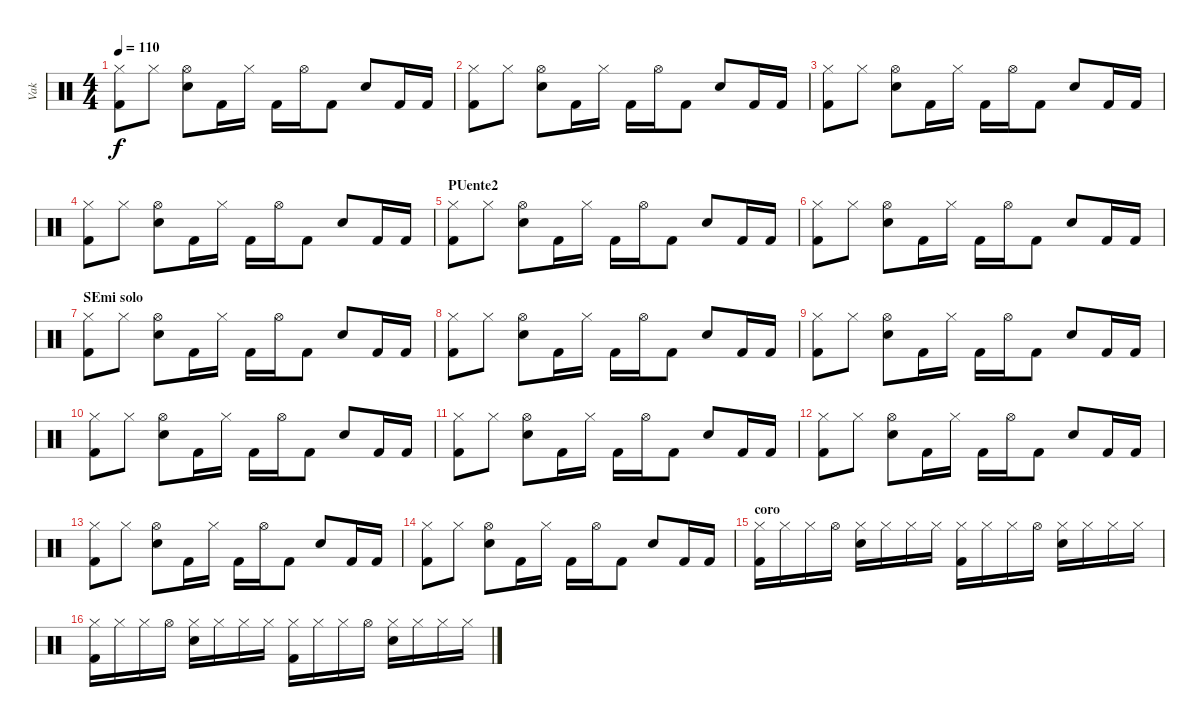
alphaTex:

\track ("Vak" "Vak") {instrument percussion}
\staff {score}
\articulation defaults
\ts (4 4)
\tempo 110
\clef neutral
\ks c
("Kick (hit) 2" "Hi-Hat (closed)").8{dy f} "Hi-Hat (closed)".8 ("Snare (hit) 2" "Hi-Hat (open)").8 "Kick (hit) 2".16 "Hi-Hat (closed)".16 "Kick (hit) 2".16 "Hi-Hat (open)".16 "Kick (hit) 2".8 "Snare (hit) 2".8 "Kick (hit) 2".16 "Kick (hit) 2".16 |
("Kick (hit) 2" "Hi-Hat (closed)").8 "Hi-Hat (closed)".8 ("Snare (hit) 2" "Hi-Hat (open)").8 "Kick (hit) 2".16 "Hi-Hat (closed)".16 "Kick (hit) 2".16 "Hi-Hat (open)".16 "Kick (hit) 2".8 "Snare (hit) 2".8 "Kick (hit) 2".16 "Kick (hit) 2".16 |
("Kick (hit) 2" "Hi-Hat (closed)").8 "Hi-Hat (closed)".8 ("Snare (hit) 2" "Hi-Hat (open)").8 "Kick (hit) 2".16 "Hi-Hat (closed)".16 "Kick (hit) 2".16 "Hi-Hat (open)".16 "Kick (hit) 2".8 "Snare (hit) 2".8 "Kick (hit) 2".16 "Kick (hit) 2".16 |
("Kick (hit) 2" "Hi-Hat (closed)").8 "Hi-Hat (closed)".8 ("Snare (hit) 2" "Hi-Hat (open)").8 "Kick (hit) 2".16 "Hi-Hat (closed)".16 "Kick (hit) 2".16 "Hi-Hat (open)".16 "Kick (hit) 2".8 "Snare (hit) 2".8 "Kick (hit) 2".16 "Kick (hit) 2".16 |
\section ("" "PUente2")
("Kick (hit) 2" "Hi-Hat (closed)").8 "Hi-Hat (closed)".8 ("Snare (hit) 2" "Hi-Hat (open)").8 "Kick (hit) 2".16 "Hi-Hat (closed)".16 "Kick (hit) 2".16 "Hi-Hat (open)".16 "Kick (hit) 2".8 "Snare (hit) 2".8 "Kick (hit) 2".16 "Kick (hit) 2".16 |
("Kick (hit) 2" "Hi-Hat (closed)").8 "Hi-Hat (closed)".8 ("Snare (hit) 2" "Hi-Hat (open)").8 "Kick (hit) 2".16 "Hi-Hat (closed)".16 "Kick (hit) 2".16 "Hi-Hat (open)".16 "Kick (hit) 2".8 "Snare (hit) 2".8 "Kick (hit) 2".16 "Kick (hit) 2".16 |
\section ("" "SEmi solo")
("Kick (hit) 2" "Hi-Hat (closed)").8 "Hi-Hat (closed)".8 ("Snare (hit) 2" "Hi-Hat (open)").8 "Kick (hit) 2".16 "Hi-Hat (closed)".16 "Kick (hit) 2".16 "Hi-Hat (open)".16 "Kick (hit) 2".8 "Snare (hit) 2".8 "Kick (hit) 2".16 "Kick (hit) 2".16 |
("Kick (hit) 2" "Hi-Hat (closed)").8 "Hi-Hat (closed)".8 ("Snare (hit) 2" "Hi-Hat (open)").8 "Kick (hit) 2".16 "Hi-Hat (closed)".16 "Kick (hit) 2".16 "Hi-Hat (open)".16 "Kick (hit) 2".8 "Snare (hit) 2".8 "Kick (hit) 2".16 "Kick (hit) 2".16 |
("Kick (hit) 2" "Hi-Hat (closed)").8 "Hi-Hat (closed)".8 ("Snare (hit) 2" "Hi-Hat (open)").8 "Kick (hit) 2".16 "Hi-Hat (closed)".16 "Kick (hit) 2".16 "Hi-Hat (open)".16 "Kick (hit) 2".8 "Snare (hit) 2".8 "Kick (hit) 2".16 "Kick (hit) 2".16 |
("Kick (hit) 2" "Hi-Hat (closed)").8 "Hi-Hat (closed)".8 ("Snare (hit) 2" "Hi-Hat (open)").8 "Kick (hit) 2".16 "Hi-Hat (closed)".16 "Kick (hit) 2".16 "Hi-Hat (open)".16 "Kick (hit) 2".8 "Snare (hit) 2".8 "Kick (hit) 2".16 "Kick (hit) 2".16 |
("Kick (hit) 2" "Hi-Hat (closed)").8 "Hi-Hat (closed)".8 ("Snare (hit) 2" "Hi-Hat (open)").8 "Kick (hit) 2".16 "Hi-Hat (closed)".16 "Kick (hit) 2".16 "Hi-Hat (open)".16 "Kick (hit) 2".8 "Snare (hit) 2".8 "Kick (hit) 2".16 "Kick (hit) 2".16 |
("Kick (hit) 2" "Hi-Hat (closed)").8 "Hi-Hat (closed)".8 ("Snare (hit) 2" "Hi-Hat (open)").8 "Kick (hit) 2".16 "Hi-Hat (closed)".16 "Kick (hit) 2".16 "Hi-Hat (open)".16 "Kick (hit) 2".8 "Snare (hit) 2".8 "Kick (hit) 2".16 "Kick (hit) 2".16 |
("Kick (hit) 2" "Hi-Hat (closed)").8 "Hi-Hat (closed)".8 ("Snare (hit) 2" "Hi-Hat (open)").8 "Kick (hit) 2".16 "Hi-Hat (closed)".16 "Kick (hit) 2".16 "Hi-Hat (open)".16 "Kick (hit) 2".8 "Snare (hit) 2".8 "Kick (hit) 2".16 "Kick (hit) 2".16 |
("Kick (hit) 2" "Hi-Hat (closed)").8 "Hi-Hat (closed)".8 ("Snare (hit) 2" "Hi-Hat (open)").8 "Kick (hit) 2".16 "Hi-Hat (closed)".16 "Kick (hit) 2".16 "Hi-Hat (open)".16 "Kick (hit) 2".8 "Snare (hit) 2".8 "Kick (hit) 2".16 "Kick (hit) 2".16 |
\section ("" "coro")
("Hi-Hat (closed)" "Kick (hit) 2").16 "Hi-Hat (closed)".16 "Hi-Hat (closed)".16 "Hi-Hat (open)".16 ("Hi-Hat (closed)" "Snare (hit) 2").16 "Hi-Hat (closed)".16 "Hi-Hat (closed)".16 "Hi-Hat (closed)".16 ("Hi-Hat (closed)" "Kick (hit) 2").16 "Hi-Hat (closed)".16 "Hi-Hat (closed)".16 "Hi-Hat (open)".16 ("Hi-Hat (closed)" "Snare (hit) 2").16 "Hi-Hat (closed)".16 "Hi-Hat (closed)".16 "Hi-Hat (closed)".16 |
("Hi-Hat (closed)" "Kick (hit) 2").16 "Hi-Hat (closed)".16 "Hi-Hat (closed)".16 "Hi-Hat (open)".16 ("Hi-Hat (closed)" "Snare (hit) 2").16 "Hi-Hat (closed)".16 "Hi-Hat (closed)".16 "Hi-Hat (closed)".16 ("Hi-Hat (closed)" "Kick (hit) 2").16 "Hi-Hat (closed)".16 "Hi-Hat (closed)".16 "Hi-Hat (open)".16 ("Hi-Hat (closed)" "Snare (hit) 2").16 "Hi-Hat (closed)".16 "Hi-Hat (closed)".16 "Hi-Hat (closed)".16
